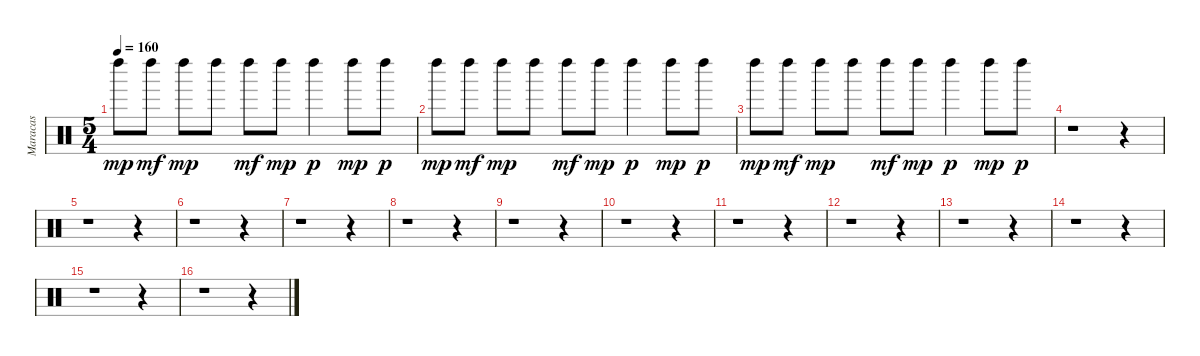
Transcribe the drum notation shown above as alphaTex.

\track ("Maracas" "Maracas") {instrument percussion}
\staff {score}
\articulation defaults
\ts (5 4)
\tempo 160
\clef neutral
\ks c "Left Maraca (hit)".8{dy mp} "Left Maraca (hit)".8{dy mf} "Left Maraca (hit)".8{dy mp} "Left Maraca (hit)".8 "Left Maraca (hit)".8{dy mf} "Left Maraca (hit)".8{dy mp} "Left Maraca (hit)".4{dy p} "Left Maraca (hit)".8{dy mp} "Left Maraca (hit)".8{dy p}
|
"Left Maraca (hit)".8{dy mp} "Left Maraca (hit)".8{dy mf} "Left Maraca (hit)".8{dy mp} "Left Maraca (hit)".8 "Left Maraca (hit)".8{dy mf} "Left Maraca (hit)".8{dy mp} "Left Maraca (hit)".4{dy p} "Left Maraca (hit)".8{dy mp} "Left Maraca (hit)".8{dy p} |
"Left Maraca (hit)".8{dy mp} "Left Maraca (hit)".8{dy mf} "Left Maraca (hit)".8{dy mp} "Left Maraca (hit)".8 "Left Maraca (hit)".8{dy mf} "Left Maraca (hit)".8{dy mp} "Left Maraca (hit)".4{dy p} "Left Maraca (hit)".8{dy mp} "Left Maraca (hit)".8{dy p} |
r.1 r.4 |
r.1 r.4 |
r.1 r.4 |
r.1 r.4 |
r.1 r.4 |
r.1 r.4 |
r.1 r.4 |
r.1 r.4 |
r.1 r.4 |
r.1 r.4 |
r.1 r.4 |
r.1 r.4 |
r.1 r.4
